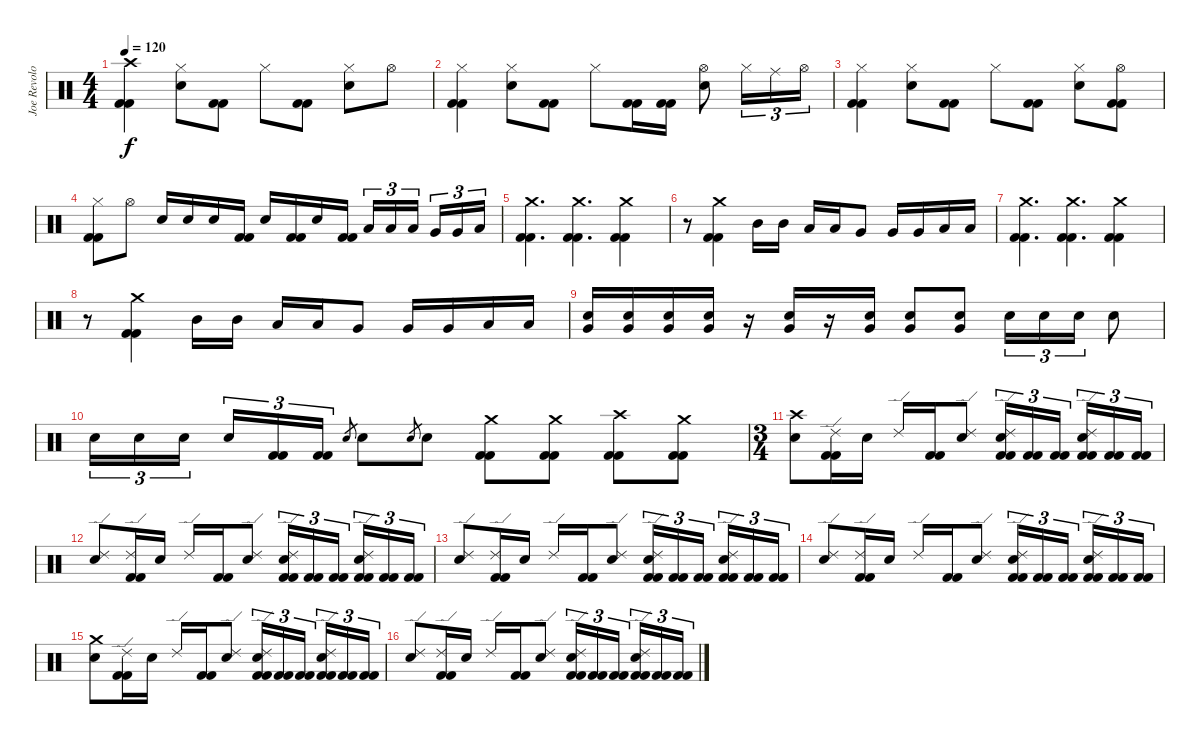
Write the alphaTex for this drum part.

\track ("Joe Revolo" "Joe Revolo") {instrument percussion}
\staff {score}
\articulation defaults
\ts (4 4)
\tempo 120
\clef neutral
\ks c
("Crash high (hit)" "Kick (hit) 2" "Kick (hit) 2").4{dy f} ("Hi-Hat (closed)" "Electric Snare (hit)").8 ("Kick (hit) 2" "Kick (hit) 2").8 "Hi-Hat (closed)".8 ("Kick (hit) 2" "Kick (hit) 2").8 ("Hi-Hat (closed)" "Electric Snare (hit)").8 "Hi-Hat (open)".8 |
("Hi-Hat (closed)" "Kick (hit) 2" "Kick (hit) 2").4 ("Hi-Hat (closed)" "Electric Snare (hit)").8 ("Kick (hit) 2" "Kick (hit) 2").8 "Hi-Hat (closed)".8 ("Kick (hit) 2" "Kick (hit) 2").16 ("Kick (hit) 2" "Kick (hit) 2").16 ("Hi-Hat (open)" "Electric Snare (hit)").8 "Hi-Hat (closed)".16{tu (3 2)} "Ride (middle)".16{tu (3 2)} "Hi-Hat (open)".16{tu (3 2)} |
("Hi-Hat (closed)" "Kick (hit) 2" "Kick (hit) 2").4 ("Hi-Hat (closed)" "Electric Snare (hit)").8 ("Kick (hit) 2" "Kick (hit) 2").8 "Hi-Hat (closed)".8 ("Kick (hit) 2" "Kick (hit) 2").8 ("Hi-Hat (closed)" "Electric Snare (hit)").8 ("Hi-Hat (open)" "Kick (hit) 2" "Kick (hit) 2").8 |
("Hi-Hat (closed)" "Kick (hit) 2" "Kick (hit) 2").8 "Hi-Hat (open)".8 "Electric Snare (hit)".16 "Electric Snare (hit)".16 "Electric Snare (hit)".16 ("Kick (hit) 2" "Kick (hit) 2").16 "Electric Snare (hit)".16 ("Kick (hit) 2" "Kick (hit) 2").16 "Electric Snare (hit)".16 ("Kick (hit) 2" "Kick (hit) 2").16 "Low Tom (hit)".16{tu (3 2)} "Low Tom (hit)".16{tu (3 2)} "Low Tom (hit)".16{tu (3 2) beam splitsecondary} "Very Low Tom (hit)".16{tu (3 2)} "Very Low Tom (hit)".16{tu (3 2)} "Low Floor Tom (hit)".16{tu (3 2)} |
("Crash medium (hit)" "Kick (hit) 2" "Kick (hit) 2").4{d} ("Crash medium (hit)" "Kick (hit) 2" "Kick (hit) 2").4{d} ("Crash medium (hit)" "Kick (hit) 2" "Kick (hit) 2").4 |
r.8 ("Crash medium (hit)" "Kick (hit) 2" "Kick (hit) 2").4 "Mid Tom (hit)".16 "Mid Tom (hit)".16 "Low Tom (hit)".16 "Low Tom (hit)".16 "Very Low Tom (hit)".8 "Very Low Tom (hit)".16 "Very Low Tom (hit)".16 "Low Floor Tom (hit)".16 "Low Floor Tom (hit)".16 |
("Crash medium (hit)" "Kick (hit) 2" "Kick (hit) 2").4{d} ("Crash medium (hit)" "Kick (hit) 2" "Kick (hit) 2").4{d} ("Crash medium (hit)" "Kick (hit) 2" "Kick (hit) 2").4 |
r.8 ("Crash medium (hit)" "Kick (hit) 2" "Kick (hit) 2").4 "Mid Tom (hit)".16 "Mid Tom (hit)".16 "Low Tom (hit)".16 "Low Tom (hit)".16 "Very Low Tom (hit)".8 "Very Low Tom (hit)".16 "Very Low Tom (hit)".16 "Low Floor Tom (hit)".16 "Low Floor Tom (hit)".16 |
("Very Low Tom (hit)" "Electric Snare (hit)").16 ("Very Low Tom (hit)" "Electric Snare (hit)").16 ("Very Low Tom (hit)" "Electric Snare (hit)").16 ("Very Low Tom (hit)" "Electric Snare (hit)").16 r.16 ("Very Low Tom (hit)" "Electric Snare (hit)").16 r.16 ("Very Low Tom (hit)" "Electric Snare (hit)").16 ("Very Low Tom (hit)" "Electric Snare (hit)").8 ("Very Low Tom (hit)" "Electric Snare (hit)").8 "Electric Snare (hit)".16{tu (3 2)} "Electric Snare (hit)".16{tu (3 2)} "Electric Snare (hit)".16{tu (3 2)} "Electric Snare (hit)".8 |
"Electric Snare (hit)".16{tu (3 2)} "Electric Snare (hit)".16{tu (3 2)} "Electric Snare (hit)".16{tu (3 2) beam splitsecondary} "Electric Snare (hit)".16{tu (3 2)} ("Kick (hit) 2" "Kick (hit) 2").16{tu (3 2)} ("Kick (hit) 2" "Kick (hit) 2").16{tu (3 2)} "Electric Snare (hit)".8{gr} "Electric Snare (hit)".8 "Electric Snare (hit)".8{gr} "Electric Snare (hit)".8 ("Crash medium (hit)" "Kick (hit) 2" "Kick (hit) 2").8 ("Crash medium (hit)" "Kick (hit) 2" "Kick (hit) 2").8 ("Crash high (hit)" "Kick (hit) 2" "Kick (hit) 2").8 ("Crash medium (hit)" "Kick (hit) 2" "Kick (hit) 2").8 |
\ts (3 4)
("Crash high (hit)" "Electric Snare (hit)").8 ("Ride (edge) 2" "Kick (hit) 2" "Kick (hit) 2").16 "Electric Snare (hit)".16 "Ride (edge) 2".16 ("Kick (hit) 2" "Kick (hit) 2").16 ("Ride (edge) 2" "Electric Snare (hit)").8 ("Ride (edge) 2" "Electric Snare (hit)" "Kick (hit) 2" "Kick (hit) 2").16{tu (3 2)} ("Kick (hit) 2" "Kick (hit) 2").16{tu (3 2)} ("Kick (hit) 2" "Kick (hit) 2").16{tu (3 2) beam splitsecondary} ("Ride (edge) 2" "Electric Snare (hit)" "Kick (hit) 2" "Kick (hit) 2").16{tu (3 2)} ("Kick (hit) 2" "Kick (hit) 2").16{tu (3 2)} ("Kick (hit) 2" "Kick (hit) 2").16{tu (3 2)} |
("Ride (edge) 2" "Electric Snare (hit)").8 ("Ride (edge) 2" "Kick (hit) 2" "Kick (hit) 2").16 "Electric Snare (hit)".16 "Ride (edge) 2".16 ("Kick (hit) 2" "Kick (hit) 2").16 ("Ride (edge) 2" "Electric Snare (hit)").8 ("Ride (edge) 2" "Electric Snare (hit)" "Kick (hit) 2" "Kick (hit) 2").16{tu (3 2)} ("Kick (hit) 2" "Kick (hit) 2").16{tu (3 2)} ("Kick (hit) 2" "Kick (hit) 2").16{tu (3 2) beam splitsecondary} ("Ride (edge) 2" "Electric Snare (hit)" "Kick (hit) 2" "Kick (hit) 2").16{tu (3 2)} ("Kick (hit) 2" "Kick (hit) 2").16{tu (3 2)} ("Kick (hit) 2" "Kick (hit) 2").16{tu (3 2)} |
("Ride (edge) 2" "Electric Snare (hit)").8 ("Ride (edge) 2" "Kick (hit) 2" "Kick (hit) 2").16 "Electric Snare (hit)".16 "Ride (edge) 2".16 ("Kick (hit) 2" "Kick (hit) 2").16 ("Ride (edge) 2" "Electric Snare (hit)").8 ("Ride (edge) 2" "Electric Snare (hit)" "Kick (hit) 2" "Kick (hit) 2").16{tu (3 2)} ("Kick (hit) 2" "Kick (hit) 2").16{tu (3 2)} ("Kick (hit) 2" "Kick (hit) 2").16{tu (3 2) beam splitsecondary} ("Ride (edge) 2" "Electric Snare (hit)" "Kick (hit) 2" "Kick (hit) 2").16{tu (3 2)} ("Kick (hit) 2" "Kick (hit) 2").16{tu (3 2)} ("Kick (hit) 2" "Kick (hit) 2").16{tu (3 2)} |
("Ride (edge) 2" "Electric Snare (hit)").8 ("Ride (edge) 2" "Kick (hit) 2" "Kick (hit) 2").16 "Electric Snare (hit)".16 "Ride (edge) 2".16 ("Kick (hit) 2" "Kick (hit) 2").16 ("Ride (edge) 2" "Electric Snare (hit)").8 ("Ride (edge) 2" "Electric Snare (hit)" "Kick (hit) 2" "Kick (hit) 2").16{tu (3 2)} ("Kick (hit) 2" "Kick (hit) 2").16{tu (3 2)} ("Kick (hit) 2" "Kick (hit) 2").16{tu (3 2) beam splitsecondary} ("Ride (edge) 2" "Electric Snare (hit)" "Kick (hit) 2" "Kick (hit) 2").16{tu (3 2)} ("Kick (hit) 2" "Kick (hit) 2").16{tu (3 2)} ("Kick (hit) 2" "Kick (hit) 2").16{tu (3 2)} |
("Crash medium (hit)" "Electric Snare (hit)").8 ("Ride (edge) 2" "Kick (hit) 2" "Kick (hit) 2").16 "Electric Snare (hit)".16 "Ride (edge) 2".16 ("Kick (hit) 2" "Kick (hit) 2").16 ("Ride (edge) 2" "Electric Snare (hit)").8 ("Ride (edge) 2" "Electric Snare (hit)" "Kick (hit) 2" "Kick (hit) 2").16{tu (3 2)} ("Kick (hit) 2" "Kick (hit) 2").16{tu (3 2)} ("Kick (hit) 2" "Kick (hit) 2").16{tu (3 2) beam splitsecondary} ("Ride (edge) 2" "Electric Snare (hit)" "Kick (hit) 2" "Kick (hit) 2").16{tu (3 2)} ("Kick (hit) 2" "Kick (hit) 2").16{tu (3 2)} ("Kick (hit) 2" "Kick (hit) 2").16{tu (3 2)} |
("Ride (edge) 2" "Electric Snare (hit)").8 ("Ride (edge) 2" "Kick (hit) 2" "Kick (hit) 2").16 "Electric Snare (hit)".16 "Ride (edge) 2".16 ("Kick (hit) 2" "Kick (hit) 2").16 ("Ride (edge) 2" "Electric Snare (hit)").8 ("Ride (edge) 2" "Electric Snare (hit)" "Kick (hit) 2" "Kick (hit) 2").16{tu (3 2)} ("Kick (hit) 2" "Kick (hit) 2").16{tu (3 2)} ("Kick (hit) 2" "Kick (hit) 2").16{tu (3 2) beam splitsecondary} ("Ride (edge) 2" "Electric Snare (hit)" "Kick (hit) 2" "Kick (hit) 2").16{tu (3 2)} ("Kick (hit) 2" "Kick (hit) 2").16{tu (3 2)} ("Kick (hit) 2" "Kick (hit) 2").16{tu (3 2)}
